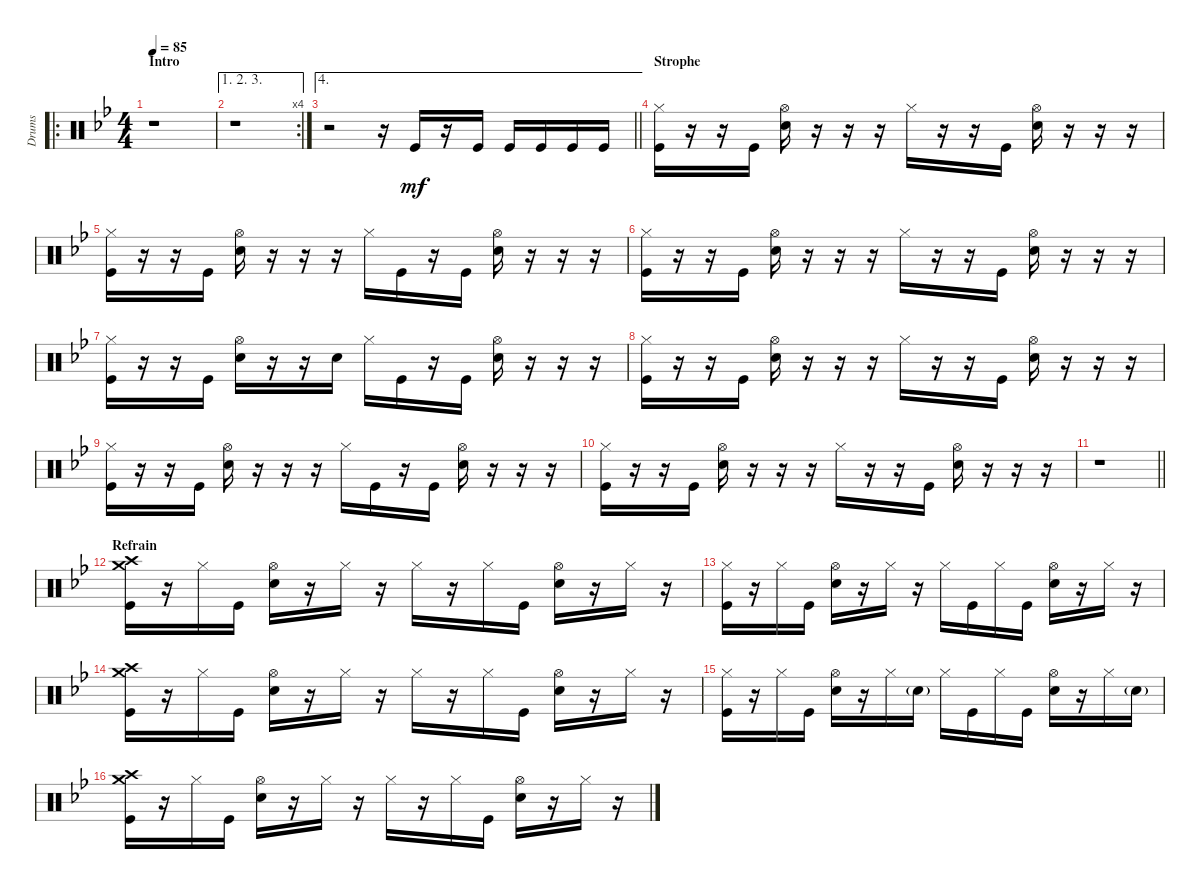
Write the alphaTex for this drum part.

\track ("Drums" "Drums") {instrument percussion}
\staff {score}
\articulation defaults
\ro
\ts (4 4)
\section ("" "Intro")
\tempo 85
\clef neutral
\ks gminor
r.1{dy mf} |
\ae (1 2 3)
\rc 4
r.1 |
\ae 4
\barLineRight lightlight
r.2 r.16 "Kick (hit)".16 r.16 "Kick (hit)".16 "Kick (hit)".16 "Kick (hit)".16 "Kick (hit)".16 "Kick (hit)".16 |
\section ("" "Strophe")
("Kick (hit)" "Hi-Hat (closed)").16 r.16 r.16 "Kick (hit)".16 ("Snare (hit) 2" "Hi-Hat (open)").16 r.16 r.16 r.16 "Hi-Hat (closed)".16 r.16 r.16 "Kick (hit)".16 ("Snare (hit) 2" "Hi-Hat (open)").16 r.16 r.16 r.16 |
("Kick (hit)" "Hi-Hat (closed)").16 r.16 r.16 "Kick (hit)".16 ("Snare (hit) 2" "Hi-Hat (open)").16 r.16 r.16 r.16 "Hi-Hat (closed)".16 "Kick (hit)".16 r.16 "Kick (hit)".16 ("Snare (hit) 2" "Hi-Hat (open)").16 r.16 r.16 r.16 |
("Kick (hit)" "Hi-Hat (closed)").16 r.16 r.16 "Kick (hit)".16 ("Snare (hit) 2" "Hi-Hat (open)").16 r.16 r.16 r.16 "Hi-Hat (closed)".16 r.16 r.16 "Kick (hit)".16 ("Snare (hit) 2" "Hi-Hat (open)").16 r.16 r.16 r.16 |
("Kick (hit)" "Hi-Hat (closed)").16 r.16 r.16 "Kick (hit)".16 ("Snare (hit) 2" "Hi-Hat (open)").16 r.16 r.16 "Snare (hit) 2".16 "Hi-Hat (closed)".16 "Kick (hit)".16 r.16 "Kick (hit)".16 ("Snare (hit) 2" "Hi-Hat (open)").16 r.16 r.16 r.16 |
("Kick (hit)" "Hi-Hat (closed)").16 r.16 r.16 "Kick (hit)".16 ("Snare (hit) 2" "Hi-Hat (open)").16 r.16 r.16 r.16 "Hi-Hat (closed)".16 r.16 r.16 "Kick (hit)".16 ("Snare (hit) 2" "Hi-Hat (open)").16 r.16 r.16 r.16 |
("Kick (hit)" "Hi-Hat (closed)").16 r.16 r.16 "Kick (hit)".16 ("Snare (hit) 2" "Hi-Hat (open)").16 r.16 r.16 r.16 "Hi-Hat (closed)".16 "Kick (hit)".16 r.16 "Kick (hit)".16 ("Snare (hit) 2" "Hi-Hat (open)").16 r.16 r.16 r.16 |
("Kick (hit)" "Hi-Hat (closed)").16 r.16 r.16 "Kick (hit)".16 ("Snare (hit) 2" "Hi-Hat (open)").16 r.16 r.16 r.16 "Hi-Hat (closed)".16 r.16 r.16 "Kick (hit)".16 ("Snare (hit) 2" "Hi-Hat (open)").16 r.16 r.16 r.16 |
\barLineRight lightlight
r.1 |
\section ("" "Refrain")
("Kick (hit)" "Crash medium (hit)" "Crash high (hit)").16 r.16 "Hi-Hat (closed)".16 "Kick (hit)".16 ("Snare (hit) 2" "Hi-Hat (open)").16 r.16 "Hi-Hat (closed)".16 r.16 "Hi-Hat (closed)".16 r.16 "Hi-Hat (closed)".16 "Kick (hit)".16 ("Snare (hit) 2" "Hi-Hat (open)").16 r.16 "Hi-Hat (closed)".16 r.16 |
("Kick (hit)" "Hi-Hat (closed)").16 r.16 "Hi-Hat (closed)".16 "Kick (hit)".16 ("Snare (hit) 2" "Hi-Hat (open)").16 r.16 "Hi-Hat (closed)".16 r.16 "Hi-Hat (closed)".16 "Kick (hit)".16 "Hi-Hat (closed)".16 "Kick (hit)".16 ("Snare (hit) 2" "Hi-Hat (open)").16 r.16 "Hi-Hat (closed)".16 r.16 |
("Kick (hit)" "Crash high (hit)" "Crash medium (hit)").16 r.16 "Hi-Hat (closed)".16 "Kick (hit)".16 ("Snare (hit) 2" "Hi-Hat (open)").16 r.16 "Hi-Hat (closed)".16 r.16 "Hi-Hat (closed)".16 r.16 "Hi-Hat (closed)".16 "Kick (hit)".16 ("Snare (hit) 2" "Hi-Hat (open)").16 r.16 "Hi-Hat (closed)".16 r.16 |
("Kick (hit)" "Hi-Hat (closed)").16 r.16 "Hi-Hat (closed)".16 "Kick (hit)".16 ("Snare (hit) 2" "Hi-Hat (open)").16 r.16 "Hi-Hat (closed)".16 "Snare (hit) 2"{g}.16 "Hi-Hat (closed)".16 "Kick (hit)".16 "Hi-Hat (closed)".16 "Kick (hit)".16 ("Snare (hit) 2" "Hi-Hat (open)").16 r.16 "Hi-Hat (closed)".16 "Snare (hit) 2"{g}.16 |
("Kick (hit)" "Crash medium (hit)" "Crash high (hit)").16 r.16 "Hi-Hat (closed)".16 "Kick (hit)".16 ("Snare (hit) 2" "Hi-Hat (open)").16 r.16 "Hi-Hat (closed)".16 r.16 "Hi-Hat (closed)".16 r.16 "Hi-Hat (closed)".16 "Kick (hit)".16 ("Snare (hit) 2" "Hi-Hat (open)").16 r.16 "Hi-Hat (closed)".16 r.16
